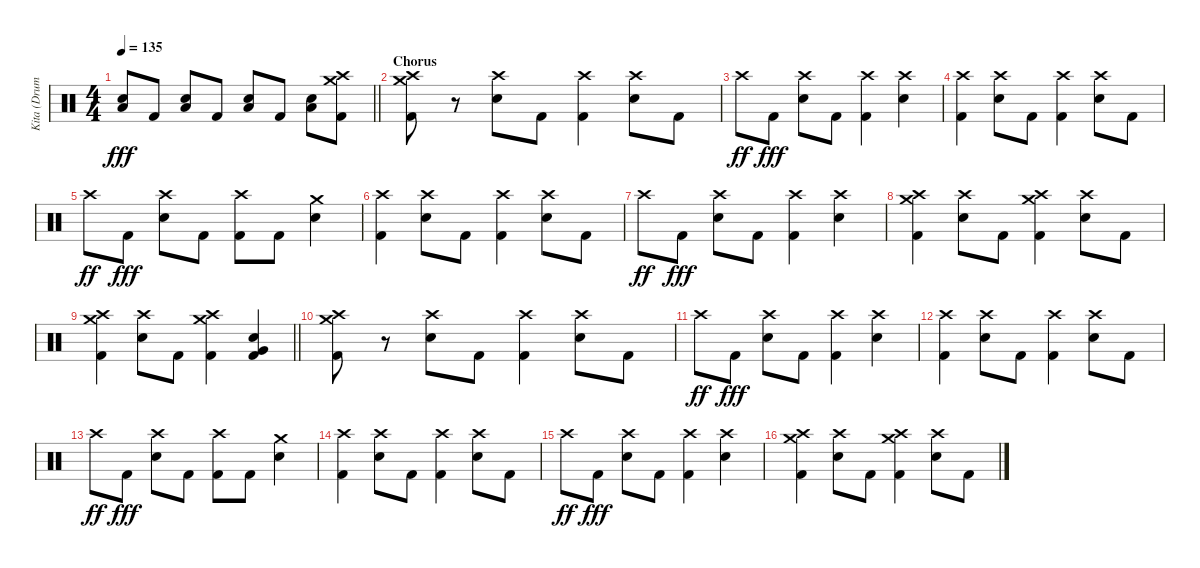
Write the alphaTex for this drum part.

\track ("Kita (Drums)" "Kita (Drum") {instrument percussion}
\staff {score}
\articulation defaults
\ts (4 4)
\tempo 135
\clef neutral
\barLineRight lightlight
\ks c
("Low Floor Tom (hit)" "Electric Snare (hit)").8{dy fff} "Kick (hit) 2".8 ("Low Floor Tom (hit)" "Electric Snare (hit)").8 "Kick (hit) 2".8 ("Low Floor Tom (hit)" "Electric Snare (hit)").8 "Kick (hit) 2".8 ("Low Floor Tom (hit)" "Electric Snare (hit)").8 ("Crash medium (hit)" "Crash high (hit)" "Kick (hit) 2").8 |
\section ("" "Chorus")
("Crash medium (hit)" "Crash high (hit)" "Kick (hit) 2").8 r.8 ("Crash high (hit)" "Electric Snare (hit)").8 "Kick (hit) 2".8 ("Crash high (hit)" "Kick (hit) 2").4 ("Crash high (hit)" "Electric Snare (hit)").8 "Kick (hit) 2".8 |
"Crash high (hit)".8{dy ff} "Kick (hit) 2".8{dy fff} ("Crash high (hit)" "Electric Snare (hit)").8 "Kick (hit) 2".8 ("Crash high (hit)" "Kick (hit) 2").4 ("Crash high (hit)" "Electric Snare (hit)").4 |
("Crash high (hit)" "Kick (hit) 2").4 ("Crash high (hit)" "Electric Snare (hit)").8 "Kick (hit) 2".8 ("Crash high (hit)" "Kick (hit) 2").4 ("Crash high (hit)" "Electric Snare (hit)").8 "Kick (hit) 2".8 |
"Crash high (hit)".8{dy ff} "Kick (hit) 2".8{dy fff} ("Crash high (hit)" "Electric Snare (hit)").8 "Kick (hit) 2".8 ("Crash high (hit)" "Kick (hit) 2").8 "Kick (hit) 2".8 ("Crash medium (hit)" "Electric Snare (hit)").4 |
("Crash high (hit)" "Kick (hit) 2").4 ("Crash high (hit)" "Electric Snare (hit)").8 "Kick (hit) 2".8 ("Crash high (hit)" "Kick (hit) 2").4 ("Crash high (hit)" "Electric Snare (hit)").8 "Kick (hit) 2".8 |
"Crash high (hit)".8{dy ff} "Kick (hit) 2".8{dy fff} ("Crash high (hit)" "Electric Snare (hit)").8 "Kick (hit) 2".8 ("Crash high (hit)" "Kick (hit) 2").4 ("Crash high (hit)" "Electric Snare (hit)").4 |
("Crash medium (hit)" "Crash high (hit)" "Kick (hit) 2").4 ("Crash high (hit)" "Electric Snare (hit)").8 "Kick (hit) 2".8 ("Crash medium (hit)" "Crash high (hit)" "Kick (hit) 2").4 ("Crash high (hit)" "Electric Snare (hit)").8 "Kick (hit) 2".8 |
\barLineRight lightlight
("Crash medium (hit)" "Crash high (hit)" "Kick (hit) 2").4 ("Crash high (hit)" "Electric Snare (hit)").8 "Kick (hit) 2".8 ("Crash medium (hit)" "Crash high (hit)" "Kick (hit) 2").4 ("Very Low Tom (hit)" "Electric Snare (hit)" "Kick (hit) 2").4 |
("Crash medium (hit)" "Crash high (hit)" "Kick (hit) 2").8 r.8 ("Crash high (hit)" "Electric Snare (hit)").8 "Kick (hit) 2".8 ("Crash high (hit)" "Kick (hit) 2").4 ("Crash high (hit)" "Electric Snare (hit)").8 "Kick (hit) 2".8 |
"Crash high (hit)".8{dy ff} "Kick (hit) 2".8{dy fff} ("Crash high (hit)" "Electric Snare (hit)").8 "Kick (hit) 2".8 ("Crash high (hit)" "Kick (hit) 2").4 ("Crash high (hit)" "Electric Snare (hit)").4 |
("Crash high (hit)" "Kick (hit) 2").4 ("Crash high (hit)" "Electric Snare (hit)").8 "Kick (hit) 2".8 ("Crash high (hit)" "Kick (hit) 2").4 ("Crash high (hit)" "Electric Snare (hit)").8 "Kick (hit) 2".8 |
"Crash high (hit)".8{dy ff} "Kick (hit) 2".8{dy fff} ("Crash high (hit)" "Electric Snare (hit)").8 "Kick (hit) 2".8 ("Crash high (hit)" "Kick (hit) 2").8 "Kick (hit) 2".8 ("Crash medium (hit)" "Electric Snare (hit)").4 |
("Crash high (hit)" "Kick (hit) 2").4 ("Crash high (hit)" "Electric Snare (hit)").8 "Kick (hit) 2".8 ("Crash high (hit)" "Kick (hit) 2").4 ("Crash high (hit)" "Electric Snare (hit)").8 "Kick (hit) 2".8 |
"Crash high (hit)".8{dy ff} "Kick (hit) 2".8{dy fff} ("Crash high (hit)" "Electric Snare (hit)").8 "Kick (hit) 2".8 ("Crash high (hit)" "Kick (hit) 2").4 ("Crash high (hit)" "Electric Snare (hit)").4 |
("Crash medium (hit)" "Crash high (hit)" "Kick (hit) 2").4 ("Crash high (hit)" "Electric Snare (hit)").8 "Kick (hit) 2".8 ("Crash medium (hit)" "Crash high (hit)" "Kick (hit) 2").4 ("Crash high (hit)" "Electric Snare (hit)").8 "Kick (hit) 2".8
